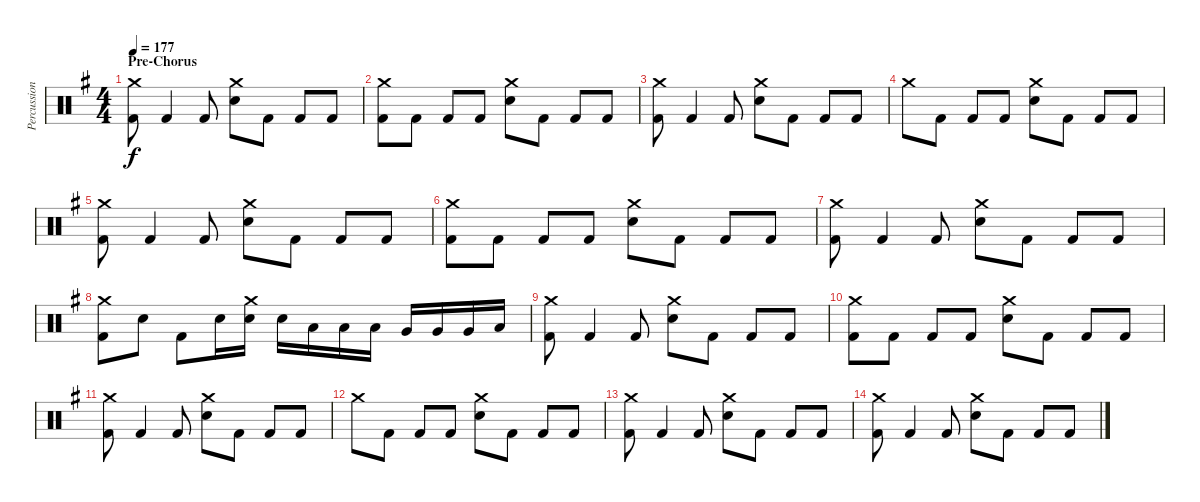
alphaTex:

\track ("Percussion" "Percussion") {instrument percussion}
\staff {score}
\articulation defaults
\ts (4 4)
\section ("" "Pre-Chorus")
\tempo 177
\clef neutral
\ks g
("Crash medium (hit)" "Kick (hit) 2").8{dy f} "Kick (hit) 2".4 "Kick (hit) 2".8 ("Crash medium (hit)" "Electric Snare (hit)").8 "Kick (hit) 2".8 "Kick (hit) 2".8 "Kick (hit) 2".8 |
("Crash medium (hit)" "Kick (hit) 2").8 "Kick (hit) 2".8 "Kick (hit) 2".8 "Kick (hit) 2".8 ("Crash medium (hit)" "Electric Snare (hit)").8 "Kick (hit) 2".8 "Kick (hit) 2".8 "Kick (hit) 2".8 |
("Crash medium (hit)" "Kick (hit) 2").8 "Kick (hit) 2".4 "Kick (hit) 2".8 ("Crash medium (hit)" "Electric Snare (hit)").8 "Kick (hit) 2".8 "Kick (hit) 2".8 "Kick (hit) 2".8 |
"Crash medium (hit)".8 "Kick (hit) 2".8 "Kick (hit) 2".8 "Kick (hit) 2".8 ("Crash medium (hit)" "Electric Snare (hit)").8 "Kick (hit) 2".8 "Kick (hit) 2".8 "Kick (hit) 2".8 |
("Crash medium (hit)" "Kick (hit) 2").8 "Kick (hit) 2".4 "Kick (hit) 2".8 ("Crash medium (hit)" "Electric Snare (hit)").8 "Kick (hit) 2".8 "Kick (hit) 2".8 "Kick (hit) 2".8 |
("Crash medium (hit)" "Kick (hit) 2").8 "Kick (hit) 2".8 "Kick (hit) 2".8 "Kick (hit) 2".8 ("Crash medium (hit)" "Electric Snare (hit)").8 "Kick (hit) 2".8 "Kick (hit) 2".8 "Kick (hit) 2".8 |
("Crash medium (hit)" "Kick (hit) 2").8 "Kick (hit) 2".4 "Kick (hit) 2".8 ("Crash medium (hit)" "Electric Snare (hit)").8 "Kick (hit) 2".8 "Kick (hit) 2".8 "Kick (hit) 2".8 |
("Crash medium (hit)" "Kick (hit) 2").8 "Electric Snare (hit)".8 "Kick (hit) 2".8 "Electric Snare (hit)".16 ("Crash medium (hit)" "Electric Snare (hit)").16 "Electric Snare (hit)".16 "Low Tom (hit)".16 "Low Tom (hit)".16 "Low Tom (hit)".16 "Very Low Tom (hit)".16 "Very Low Tom (hit)".16 "Very Low Tom (hit)".16 "Low Floor Tom (hit)".16 |
("Crash medium (hit)" "Kick (hit) 2").8 "Kick (hit) 2".4 "Kick (hit) 2".8 ("Crash medium (hit)" "Electric Snare (hit)").8 "Kick (hit) 2".8 "Kick (hit) 2".8 "Kick (hit) 2".8 |
("Crash medium (hit)" "Kick (hit) 2").8 "Kick (hit) 2".8 "Kick (hit) 2".8 "Kick (hit) 2".8 ("Crash medium (hit)" "Electric Snare (hit)").8 "Kick (hit) 2".8 "Kick (hit) 2".8 "Kick (hit) 2".8 |
("Crash medium (hit)" "Kick (hit) 2").8 "Kick (hit) 2".4 "Kick (hit) 2".8 ("Crash medium (hit)" "Electric Snare (hit)").8 "Kick (hit) 2".8 "Kick (hit) 2".8 "Kick (hit) 2".8 |
"Crash medium (hit)".8 "Kick (hit) 2".8 "Kick (hit) 2".8 "Kick (hit) 2".8 ("Crash medium (hit)" "Electric Snare (hit)").8 "Kick (hit) 2".8 "Kick (hit) 2".8 "Kick (hit) 2".8 |
("Crash medium (hit)" "Kick (hit) 2").8 "Kick (hit) 2".4 "Kick (hit) 2".8 ("Crash medium (hit)" "Electric Snare (hit)").8 "Kick (hit) 2".8 "Kick (hit) 2".8 "Kick (hit) 2".8 |
("Crash medium (hit)" "Kick (hit) 2").8 "Kick (hit) 2".4 "Kick (hit) 2".8 ("Crash medium (hit)" "Electric Snare (hit)").8 "Kick (hit) 2".8 "Kick (hit) 2".8 "Kick (hit) 2".8
